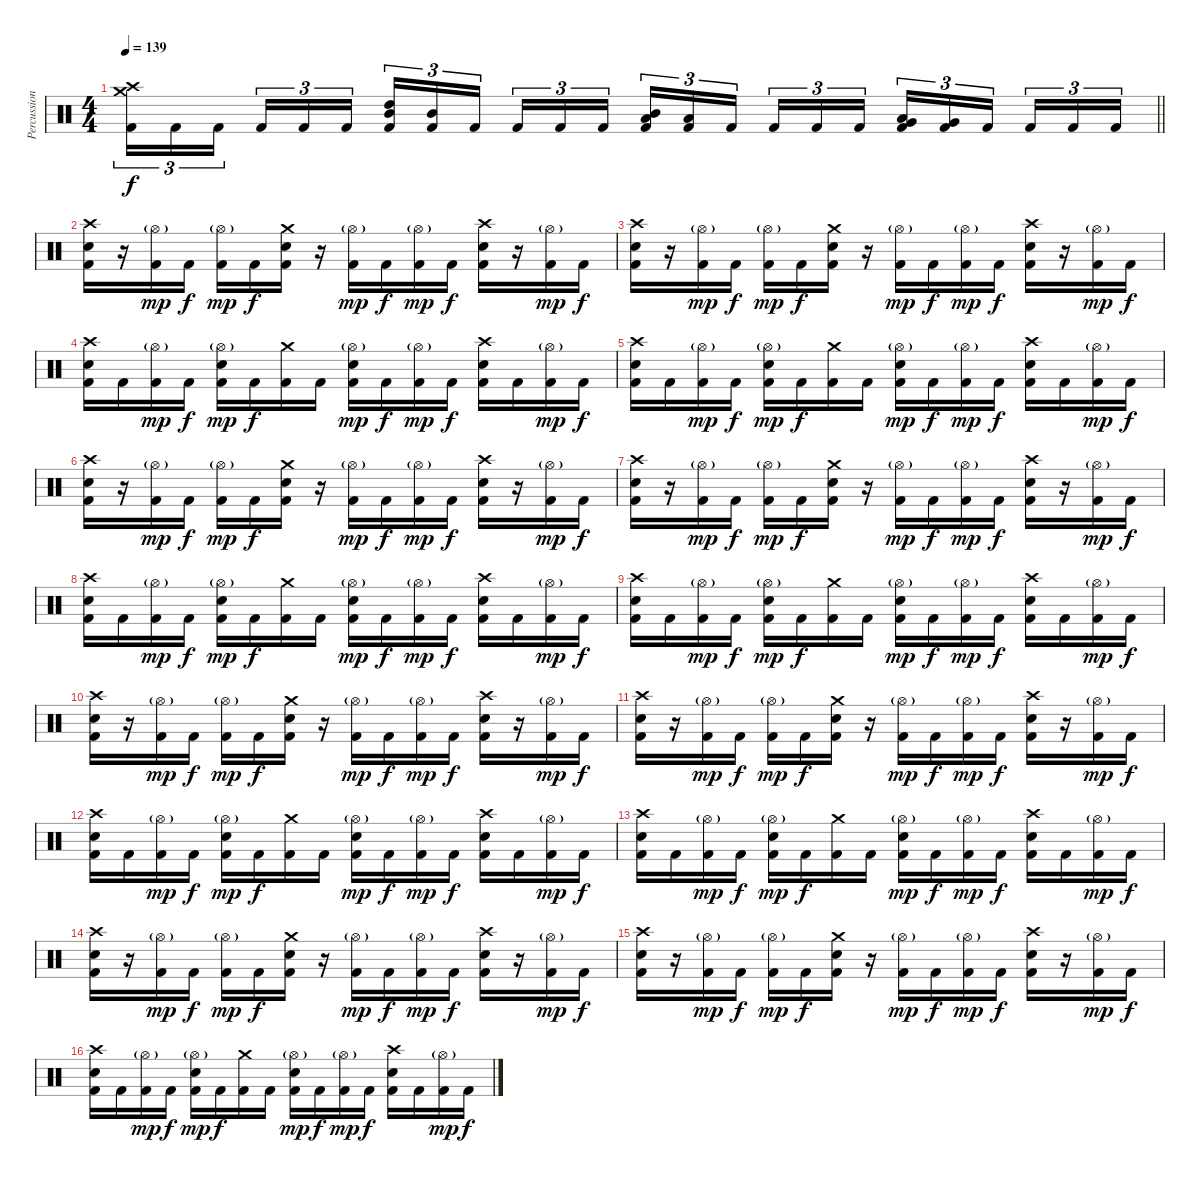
\track ("Percussion" "Percussion") {instrument percussion}
\staff {score}
\articulation defaults
\ts (4 4)
\tempo 139
\clef neutral
\barLineRight lightlight
\ks c
("Crash high (hit)" "Crash medium (hit)" "Kick (hit) 2").16{tu (3 2) dy f} "Kick (hit) 2".16{tu (3 2)} "Kick (hit) 2".16{tu (3 2) beam splitsecondary} "Kick (hit) 2".16{tu (3 2)} "Kick (hit) 2".16{tu (3 2)} "Kick (hit) 2".16{tu (3 2)} ("High Tom (hit)" "Mid Tom (hit)" "Kick (hit) 2").16{tu (3 2)} ("Mid Tom (hit)" "Kick (hit) 2").16{tu (3 2)} "Kick (hit) 2".16{tu (3 2) beam splitsecondary} "Kick (hit) 2".16{tu (3 2)} "Kick (hit) 2".16{tu (3 2)} "Kick (hit) 2".16{tu (3 2)} ("Mid Tom (hit)" "Low Tom (hit)" "Kick (hit) 2").16{tu (3 2)} ("Low Tom (hit)" "Kick (hit) 2").16{tu (3 2)} "Kick (hit) 2".16{tu (3 2) beam splitsecondary} "Kick (hit) 2".16{tu (3 2)} "Kick (hit) 2".16{tu (3 2)} "Kick (hit) 2".16{tu (3 2)} ("Low Tom (hit)" "Very Low Tom (hit)" "Kick (hit) 2").16{tu (3 2)} ("Very Low Tom (hit)" "Kick (hit) 2").16{tu (3 2)} "Kick (hit) 2".16{tu (3 2) beam splitsecondary} "Kick (hit) 2".16{tu (3 2)} "Kick (hit) 2".16{tu (3 2)} "Kick (hit) 2".16{tu (3 2)} |
("Crash high (hit)" "Electric Snare (hit)" "Kick (hit) 2").16 r.16 ("Hi-Hat (open)"{g} "Kick (hit) 2").16{dy mp} "Kick (hit) 2".16{dy f} ("Hi-Hat (open)"{g} "Kick (hit) 2").16{dy mp} "Kick (hit) 2".16{dy f} ("Crash medium (hit)" "Electric Snare (hit)" "Kick (hit) 2").16 r.16 ("Hi-Hat (open)"{g} "Kick (hit) 2").16{dy mp} "Kick (hit) 2".16{dy f} ("Hi-Hat (open)"{g} "Kick (hit) 2").16{dy mp} "Kick (hit) 2".16{dy f} ("Crash high (hit)" "Electric Snare (hit)" "Kick (hit) 2").16 r.16 ("Hi-Hat (open)"{g} "Kick (hit) 2").16{dy mp} "Kick (hit) 2".16{dy f} |
("Crash high (hit)" "Electric Snare (hit)" "Kick (hit) 2").16 r.16 ("Hi-Hat (open)"{g} "Kick (hit) 2").16{dy mp} "Kick (hit) 2".16{dy f} ("Hi-Hat (open)"{g} "Kick (hit) 2").16{dy mp} "Kick (hit) 2".16{dy f} ("Crash medium (hit)" "Electric Snare (hit)" "Kick (hit) 2").16 r.16 ("Hi-Hat (open)"{g} "Kick (hit) 2").16{dy mp} "Kick (hit) 2".16{dy f} ("Hi-Hat (open)"{g} "Kick (hit) 2").16{dy mp} "Kick (hit) 2".16{dy f} ("Crash high (hit)" "Electric Snare (hit)" "Kick (hit) 2").16 r.16 ("Hi-Hat (open)"{g} "Kick (hit) 2").16{dy mp} "Kick (hit) 2".16{dy f} |
("Crash high (hit)" "Electric Snare (hit)" "Kick (hit) 2").16 "Kick (hit) 2".16 ("Hi-Hat (open)"{g} "Kick (hit) 2").16{dy mp} "Kick (hit) 2".16{dy f} ("Hi-Hat (open)"{g} "Electric Snare (hit)" "Kick (hit) 2").16{dy mp} "Kick (hit) 2".16{dy f} ("Crash medium (hit)" "Kick (hit) 2").16 "Kick (hit) 2".16 ("Hi-Hat (open)"{g} "Electric Snare (hit)" "Kick (hit) 2").16{dy mp} "Kick (hit) 2".16{dy f} ("Hi-Hat (open)"{g} "Kick (hit) 2").16{dy mp} "Kick (hit) 2".16{dy f} ("Crash high (hit)" "Electric Snare (hit)" "Kick (hit) 2").16 "Kick (hit) 2".16 ("Hi-Hat (open)"{g} "Kick (hit) 2").16{dy mp} "Kick (hit) 2".16{dy f} |
("Crash high (hit)" "Electric Snare (hit)" "Kick (hit) 2").16 "Kick (hit) 2".16 ("Hi-Hat (open)"{g} "Kick (hit) 2").16{dy mp} "Kick (hit) 2".16{dy f} ("Hi-Hat (open)"{g} "Electric Snare (hit)" "Kick (hit) 2").16{dy mp} "Kick (hit) 2".16{dy f} ("Crash medium (hit)" "Kick (hit) 2").16 "Kick (hit) 2".16 ("Hi-Hat (open)"{g} "Electric Snare (hit)" "Kick (hit) 2").16{dy mp} "Kick (hit) 2".16{dy f} ("Hi-Hat (open)"{g} "Kick (hit) 2").16{dy mp} "Kick (hit) 2".16{dy f} ("Crash high (hit)" "Electric Snare (hit)" "Kick (hit) 2").16 "Kick (hit) 2".16 ("Hi-Hat (open)"{g} "Kick (hit) 2").16{dy mp} "Kick (hit) 2".16{dy f} |
("Crash high (hit)" "Electric Snare (hit)" "Kick (hit) 2").16 r.16 ("Hi-Hat (open)"{g} "Kick (hit) 2").16{dy mp} "Kick (hit) 2".16{dy f} ("Hi-Hat (open)"{g} "Kick (hit) 2").16{dy mp} "Kick (hit) 2".16{dy f} ("Crash medium (hit)" "Electric Snare (hit)" "Kick (hit) 2").16 r.16 ("Hi-Hat (open)"{g} "Kick (hit) 2").16{dy mp} "Kick (hit) 2".16{dy f} ("Hi-Hat (open)"{g} "Kick (hit) 2").16{dy mp} "Kick (hit) 2".16{dy f} ("Crash high (hit)" "Electric Snare (hit)" "Kick (hit) 2").16 r.16 ("Hi-Hat (open)"{g} "Kick (hit) 2").16{dy mp} "Kick (hit) 2".16{dy f} |
("Crash high (hit)" "Electric Snare (hit)" "Kick (hit) 2").16 r.16 ("Hi-Hat (open)"{g} "Kick (hit) 2").16{dy mp} "Kick (hit) 2".16{dy f} ("Hi-Hat (open)"{g} "Kick (hit) 2").16{dy mp} "Kick (hit) 2".16{dy f} ("Crash medium (hit)" "Electric Snare (hit)" "Kick (hit) 2").16 r.16 ("Hi-Hat (open)"{g} "Kick (hit) 2").16{dy mp} "Kick (hit) 2".16{dy f} ("Hi-Hat (open)"{g} "Kick (hit) 2").16{dy mp} "Kick (hit) 2".16{dy f} ("Crash high (hit)" "Electric Snare (hit)" "Kick (hit) 2").16 r.16 ("Hi-Hat (open)"{g} "Kick (hit) 2").16{dy mp} "Kick (hit) 2".16{dy f} |
("Crash high (hit)" "Electric Snare (hit)" "Kick (hit) 2").16 "Kick (hit) 2".16 ("Hi-Hat (open)"{g} "Kick (hit) 2").16{dy mp} "Kick (hit) 2".16{dy f} ("Hi-Hat (open)"{g} "Electric Snare (hit)" "Kick (hit) 2").16{dy mp} "Kick (hit) 2".16{dy f} ("Crash medium (hit)" "Kick (hit) 2").16 "Kick (hit) 2".16 ("Hi-Hat (open)"{g} "Electric Snare (hit)" "Kick (hit) 2").16{dy mp} "Kick (hit) 2".16{dy f} ("Hi-Hat (open)"{g} "Kick (hit) 2").16{dy mp} "Kick (hit) 2".16{dy f} ("Crash high (hit)" "Electric Snare (hit)" "Kick (hit) 2").16 "Kick (hit) 2".16 ("Hi-Hat (open)"{g} "Kick (hit) 2").16{dy mp} "Kick (hit) 2".16{dy f} |
("Crash high (hit)" "Electric Snare (hit)" "Kick (hit) 2").16 "Kick (hit) 2".16 ("Hi-Hat (open)"{g} "Kick (hit) 2").16{dy mp} "Kick (hit) 2".16{dy f} ("Hi-Hat (open)"{g} "Electric Snare (hit)" "Kick (hit) 2").16{dy mp} "Kick (hit) 2".16{dy f} ("Crash medium (hit)" "Kick (hit) 2").16 "Kick (hit) 2".16 ("Hi-Hat (open)"{g} "Electric Snare (hit)" "Kick (hit) 2").16{dy mp} "Kick (hit) 2".16{dy f} ("Hi-Hat (open)"{g} "Kick (hit) 2").16{dy mp} "Kick (hit) 2".16{dy f} ("Crash high (hit)" "Electric Snare (hit)" "Kick (hit) 2").16 "Kick (hit) 2".16 ("Hi-Hat (open)"{g} "Kick (hit) 2").16{dy mp} "Kick (hit) 2".16{dy f} |
("Crash high (hit)" "Electric Snare (hit)" "Kick (hit) 2").16 r.16 ("Hi-Hat (open)"{g} "Kick (hit) 2").16{dy mp} "Kick (hit) 2".16{dy f} ("Hi-Hat (open)"{g} "Kick (hit) 2").16{dy mp} "Kick (hit) 2".16{dy f} ("Crash medium (hit)" "Electric Snare (hit)" "Kick (hit) 2").16 r.16 ("Hi-Hat (open)"{g} "Kick (hit) 2").16{dy mp} "Kick (hit) 2".16{dy f} ("Hi-Hat (open)"{g} "Kick (hit) 2").16{dy mp} "Kick (hit) 2".16{dy f} ("Crash high (hit)" "Electric Snare (hit)" "Kick (hit) 2").16 r.16 ("Hi-Hat (open)"{g} "Kick (hit) 2").16{dy mp} "Kick (hit) 2".16{dy f} |
("Crash high (hit)" "Electric Snare (hit)" "Kick (hit) 2").16 r.16 ("Hi-Hat (open)"{g} "Kick (hit) 2").16{dy mp} "Kick (hit) 2".16{dy f} ("Hi-Hat (open)"{g} "Kick (hit) 2").16{dy mp} "Kick (hit) 2".16{dy f} ("Crash medium (hit)" "Electric Snare (hit)" "Kick (hit) 2").16 r.16 ("Hi-Hat (open)"{g} "Kick (hit) 2").16{dy mp} "Kick (hit) 2".16{dy f} ("Hi-Hat (open)"{g} "Kick (hit) 2").16{dy mp} "Kick (hit) 2".16{dy f} ("Crash high (hit)" "Electric Snare (hit)" "Kick (hit) 2").16 r.16 ("Hi-Hat (open)"{g} "Kick (hit) 2").16{dy mp} "Kick (hit) 2".16{dy f} |
("Crash high (hit)" "Electric Snare (hit)" "Kick (hit) 2").16 "Kick (hit) 2".16 ("Hi-Hat (open)"{g} "Kick (hit) 2").16{dy mp} "Kick (hit) 2".16{dy f} ("Hi-Hat (open)"{g} "Electric Snare (hit)" "Kick (hit) 2").16{dy mp} "Kick (hit) 2".16{dy f} ("Crash medium (hit)" "Kick (hit) 2").16 "Kick (hit) 2".16 ("Hi-Hat (open)"{g} "Electric Snare (hit)" "Kick (hit) 2").16{dy mp} "Kick (hit) 2".16{dy f} ("Hi-Hat (open)"{g} "Kick (hit) 2").16{dy mp} "Kick (hit) 2".16{dy f} ("Crash high (hit)" "Electric Snare (hit)" "Kick (hit) 2").16 "Kick (hit) 2".16 ("Hi-Hat (open)"{g} "Kick (hit) 2").16{dy mp} "Kick (hit) 2".16{dy f} |
("Crash high (hit)" "Electric Snare (hit)" "Kick (hit) 2").16 "Kick (hit) 2".16 ("Hi-Hat (open)"{g} "Kick (hit) 2").16{dy mp} "Kick (hit) 2".16{dy f} ("Hi-Hat (open)"{g} "Electric Snare (hit)" "Kick (hit) 2").16{dy mp} "Kick (hit) 2".16{dy f} ("Crash medium (hit)" "Kick (hit) 2").16 "Kick (hit) 2".16 ("Hi-Hat (open)"{g} "Electric Snare (hit)" "Kick (hit) 2").16{dy mp} "Kick (hit) 2".16{dy f} ("Hi-Hat (open)"{g} "Kick (hit) 2").16{dy mp} "Kick (hit) 2".16{dy f} ("Crash high (hit)" "Electric Snare (hit)" "Kick (hit) 2").16 "Kick (hit) 2".16 ("Hi-Hat (open)"{g} "Kick (hit) 2").16{dy mp} "Kick (hit) 2".16{dy f} |
("Crash high (hit)" "Electric Snare (hit)" "Kick (hit) 2").16 r.16 ("Hi-Hat (open)"{g} "Kick (hit) 2").16{dy mp} "Kick (hit) 2".16{dy f} ("Hi-Hat (open)"{g} "Kick (hit) 2").16{dy mp} "Kick (hit) 2".16{dy f} ("Crash medium (hit)" "Electric Snare (hit)" "Kick (hit) 2").16 r.16 ("Hi-Hat (open)"{g} "Kick (hit) 2").16{dy mp} "Kick (hit) 2".16{dy f} ("Hi-Hat (open)"{g} "Kick (hit) 2").16{dy mp} "Kick (hit) 2".16{dy f} ("Crash high (hit)" "Electric Snare (hit)" "Kick (hit) 2").16 r.16 ("Hi-Hat (open)"{g} "Kick (hit) 2").16{dy mp} "Kick (hit) 2".16{dy f} |
("Crash high (hit)" "Electric Snare (hit)" "Kick (hit) 2").16 r.16 ("Hi-Hat (open)"{g} "Kick (hit) 2").16{dy mp} "Kick (hit) 2".16{dy f} ("Hi-Hat (open)"{g} "Kick (hit) 2").16{dy mp} "Kick (hit) 2".16{dy f} ("Crash medium (hit)" "Electric Snare (hit)" "Kick (hit) 2").16 r.16 ("Hi-Hat (open)"{g} "Kick (hit) 2").16{dy mp} "Kick (hit) 2".16{dy f} ("Hi-Hat (open)"{g} "Kick (hit) 2").16{dy mp} "Kick (hit) 2".16{dy f} ("Crash high (hit)" "Electric Snare (hit)" "Kick (hit) 2").16 r.16 ("Hi-Hat (open)"{g} "Kick (hit) 2").16{dy mp} "Kick (hit) 2".16{dy f} |
("Crash high (hit)" "Electric Snare (hit)" "Kick (hit) 2").16 "Kick (hit) 2".16 ("Hi-Hat (open)"{g} "Kick (hit) 2").16{dy mp} "Kick (hit) 2".16{dy f} ("Hi-Hat (open)"{g} "Electric Snare (hit)" "Kick (hit) 2").16{dy mp} "Kick (hit) 2".16{dy f} ("Crash medium (hit)" "Kick (hit) 2").16 "Kick (hit) 2".16 ("Hi-Hat (open)"{g} "Electric Snare (hit)" "Kick (hit) 2").16{dy mp} "Kick (hit) 2".16{dy f} ("Hi-Hat (open)"{g} "Kick (hit) 2").16{dy mp} "Kick (hit) 2".16{dy f} ("Crash high (hit)" "Electric Snare (hit)" "Kick (hit) 2").16 "Kick (hit) 2".16 ("Hi-Hat (open)"{g} "Kick (hit) 2").16{dy mp} "Kick (hit) 2".16{dy f}
